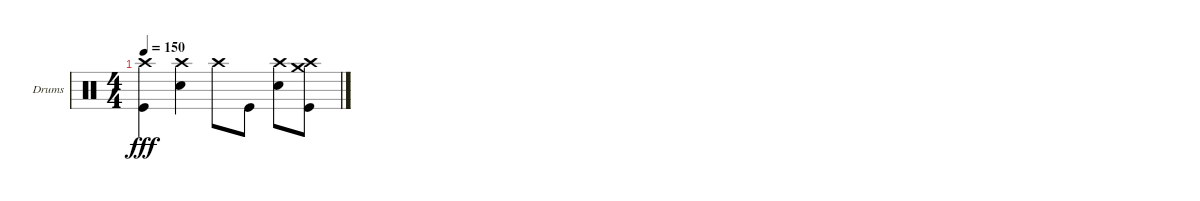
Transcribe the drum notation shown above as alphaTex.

\bracketExtendMode groupsimilarinstruments
\firstSystemTrackNameOrientation horizontal
\otherSystemsTrackNameOrientation horizontal
\track ("Drumkit" "Drums") {instrument percussion}
\staff {score}
\articulation defaults
\ts (4 4)
\tempo 150
\clef neutral
\ks c
("Crash high (hit)" "Kick (hit)").4{dy fff} ("Crash high (hit)" "Snare (hit) 2").4 "Crash high (hit)".8 "Kick (hit)".8 ("Crash high (hit)" "Snare (hit) 2").8 ("Crash high (hit)" "Crash medium (hit)" "Kick (hit)").8
